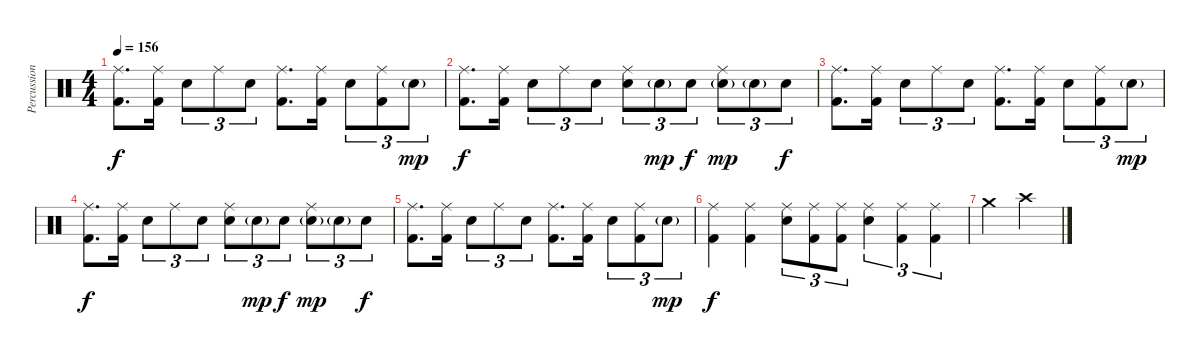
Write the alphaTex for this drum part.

\track ("Percussion" "Percussion") {instrument percussion}
\staff {score}
\articulation defaults
\ts (4 4)
\tempo 156
\clef neutral
\ks c
("Ride (middle)" "Kick (hit) 2").8{d dy f} ("Ride (middle)" "Kick (hit) 2").16 "Electric Snare (hit)".8{tu (3 2)} "Ride (middle)".8{tu (3 2)} "Electric Snare (hit)".8{tu (3 2)} ("Ride (middle)" "Kick (hit) 2").8{d} ("Ride (middle)" "Kick (hit) 2").16 "Electric Snare (hit)".8{tu (3 2)} ("Ride (middle)" "Kick (hit) 2").8{tu (3 2)} "Electric Snare (hit)"{g}.8{tu (3 2) dy mp} |
("Ride (middle)" "Kick (hit) 2").8{d dy f} ("Ride (middle)" "Kick (hit) 2").16 "Electric Snare (hit)".8{tu (3 2)} "Ride (middle)".8{tu (3 2)} "Electric Snare (hit)".8{tu (3 2)} ("Ride (middle)" "Electric Snare (hit)").8{tu (3 2)} "Electric Snare (hit)"{g}.8{tu (3 2) dy mp} "Electric Snare (hit)".8{tu (3 2) dy f} ("Ride (middle)" "Electric Snare (hit)"{g}).8{tu (3 2) dy mp} "Electric Snare (hit)"{g}.8{tu (3 2)} "Electric Snare (hit)".8{tu (3 2) dy f} |
("Ride (middle)" "Kick (hit) 2").8{d} ("Ride (middle)" "Kick (hit) 2").16 "Electric Snare (hit)".8{tu (3 2)} "Ride (middle)".8{tu (3 2)} "Electric Snare (hit)".8{tu (3 2)} ("Ride (middle)" "Kick (hit) 2").8{d} ("Ride (middle)" "Kick (hit) 2").16 "Electric Snare (hit)".8{tu (3 2)} ("Ride (middle)" "Kick (hit) 2").8{tu (3 2)} "Electric Snare (hit)"{g}.8{tu (3 2) dy mp} |
("Ride (middle)" "Kick (hit) 2").8{d dy f} ("Ride (middle)" "Kick (hit) 2").16 "Electric Snare (hit)".8{tu (3 2)} "Ride (middle)".8{tu (3 2)} "Electric Snare (hit)".8{tu (3 2)} ("Ride (middle)" "Electric Snare (hit)").8{tu (3 2)} "Electric Snare (hit)"{g}.8{tu (3 2) dy mp} "Electric Snare (hit)".8{tu (3 2) dy f} ("Ride (middle)" "Electric Snare (hit)"{g}).8{tu (3 2) dy mp} "Electric Snare (hit)"{g}.8{tu (3 2)} "Electric Snare (hit)".8{tu (3 2) dy f} |
("Ride (middle)" "Kick (hit) 2").8{d} ("Ride (middle)" "Kick (hit) 2").16 "Electric Snare (hit)".8{tu (3 2)} "Ride (middle)".8{tu (3 2)} "Electric Snare (hit)".8{tu (3 2)} ("Ride (middle)" "Kick (hit) 2").8{d} ("Ride (middle)" "Kick (hit) 2").16 "Electric Snare (hit)".8{tu (3 2)} ("Ride (middle)" "Kick (hit) 2").8{tu (3 2)} "Electric Snare (hit)"{g}.8{tu (3 2) dy mp} |
("Ride (middle)" "Kick (hit) 2").4{dy f} ("Ride (middle)" "Kick (hit) 2").4 ("Ride (middle)" "Electric Snare (hit)").8{tu (3 2)} ("Ride (middle)" "Kick (hit) 2").8{tu (3 2)} ("Ride (middle)" "Kick (hit) 2").8{tu (3 2)} ("Ride (middle)" "Electric Snare (hit)").4{tu (3 2)} ("Ride (middle)" "Kick (hit) 2").4{tu (3 2)} ("Ride (middle)" "Kick (hit) 2").4{tu (3 2)} |
"Crash medium (hit)".4 "Crash high (hit)".4
